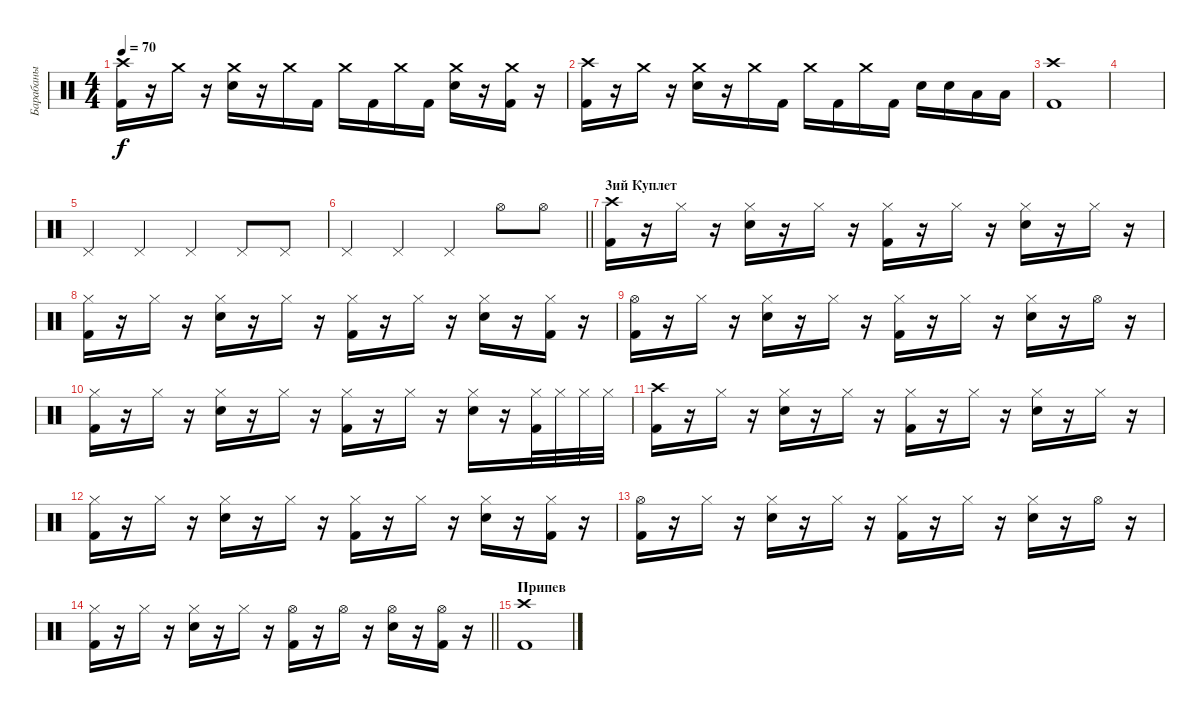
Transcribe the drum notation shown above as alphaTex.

\track ("Барабаны" "Барабаны") {instrument percussion}
\staff {score}
\articulation defaults
\ts (4 4)
\tempo 70
\clef neutral
\ks c
("Crash high (hit)" "Kick (hit) 2").16{dy f} r.16 "Crash medium (hit)".16 r.16 ("Crash medium (hit)" "Snare (hit) 2").16 r.16 "Crash medium (hit)".16 "Kick (hit) 2".16 "Crash medium (hit)".16 "Kick (hit) 2".16 "Crash medium (hit)".16 "Kick (hit) 2".16 ("Crash medium (hit)" "Snare (hit) 2").16 r.16 ("Crash medium (hit)" "Kick (hit) 2").16 r.16 |
("Crash high (hit)" "Kick (hit) 2").16 r.16 "Crash medium (hit)".16 r.16 ("Crash medium (hit)" "Snare (hit) 2").16 r.16 "Crash medium (hit)".16 "Kick (hit) 2".16 "Crash medium (hit)".16 "Kick (hit) 2".16 "Crash medium (hit)".16 "Kick (hit) 2".16 "Snare (hit) 2".16 "Snare (hit) 2".16 "Low Tom (hit)".16 "Low Tom (hit)".16 |
("Crash high (hit)" "Kick (hit) 2").1 |
|
"Pedal Hi-Hat (hit)".4 "Pedal Hi-Hat (hit)".4 "Pedal Hi-Hat (hit)".4 "Pedal Hi-Hat (hit)".8 "Pedal Hi-Hat (hit)".8 |
\barLineRight lightlight "Pedal Hi-Hat (hit)".4 "Pedal Hi-Hat (hit)".4 "Pedal Hi-Hat (hit)".4 "Hi-Hat (open)".8 "Hi-Hat (open)".8
|
\section ("" "3ий Куплет")
("Crash high (hit)" "Kick (hit) 2").16 r.16 "Hi-Hat (closed)".16 r.16 ("Hi-Hat (closed)" "Snare (hit) 2").16 r.16 "Hi-Hat (closed)".16 r.16 ("Hi-Hat (closed)" "Kick (hit) 2").16 r.16 "Hi-Hat (closed)".16 r.16 ("Hi-Hat (closed)" "Snare (hit) 2").16 r.16 "Hi-Hat (closed)".16 r.16 |
("Hi-Hat (closed)" "Kick (hit) 2").16 r.16 "Hi-Hat (closed)".16 r.16 ("Hi-Hat (closed)" "Snare (hit) 2").16 r.16 "Hi-Hat (closed)".16 r.16 ("Hi-Hat (closed)" "Kick (hit) 2").16 r.16 "Hi-Hat (closed)".16 r.16 ("Hi-Hat (closed)" "Snare (hit) 2").16 r.16 ("Hi-Hat (closed)" "Kick (hit) 2").16 r.16 |
("Hi-Hat (open)" "Kick (hit) 2").16 r.16 "Hi-Hat (closed)".16 r.16 ("Hi-Hat (closed)" "Snare (hit) 2").16 r.16 "Hi-Hat (closed)".16 r.16 ("Hi-Hat (closed)" "Kick (hit) 2").16 r.16 "Hi-Hat (closed)".16 r.16 ("Hi-Hat (closed)" "Snare (hit) 2").16 r.16 "Hi-Hat (open)".16 r.16 |
("Hi-Hat (closed)" "Kick (hit) 2").16 r.16 "Hi-Hat (closed)".16 r.16 ("Hi-Hat (closed)" "Snare (hit) 2").16 r.16 "Hi-Hat (closed)".16 r.16 ("Hi-Hat (closed)" "Kick (hit) 2").16 r.16 "Hi-Hat (closed)".16 r.16 ("Hi-Hat (closed)" "Snare (hit) 2").16 r.16 ("Hi-Hat (closed)" "Kick (hit) 2").32 "Hi-Hat (closed)".32 "Hi-Hat (closed)".32 "Hi-Hat (closed)".32 |
("Crash high (hit)" "Kick (hit) 2").16 r.16 "Hi-Hat (closed)".16 r.16 ("Hi-Hat (closed)" "Snare (hit) 2").16 r.16 "Hi-Hat (closed)".16 r.16 ("Hi-Hat (closed)" "Kick (hit) 2").16 r.16 "Hi-Hat (closed)".16 r.16 ("Hi-Hat (closed)" "Snare (hit) 2").16 r.16 "Hi-Hat (closed)".16 r.16 |
("Hi-Hat (closed)" "Kick (hit) 2").16 r.16 "Hi-Hat (closed)".16 r.16 ("Hi-Hat (closed)" "Snare (hit) 2").16 r.16 "Hi-Hat (closed)".16 r.16 ("Hi-Hat (closed)" "Kick (hit) 2").16 r.16 "Hi-Hat (closed)".16 r.16 ("Hi-Hat (closed)" "Snare (hit) 2").16 r.16 ("Hi-Hat (closed)" "Kick (hit) 2").16 r.16 |
("Hi-Hat (open)" "Kick (hit) 2").16 r.16 "Hi-Hat (closed)".16 r.16 ("Hi-Hat (closed)" "Snare (hit) 2").16 r.16 "Hi-Hat (closed)".16 r.16 ("Hi-Hat (closed)" "Kick (hit) 2").16 r.16 "Hi-Hat (closed)".16 r.16 ("Hi-Hat (closed)" "Snare (hit) 2").16 r.16 "Hi-Hat (open)".16 r.16 |
\barLineRight lightlight
("Hi-Hat (closed)" "Kick (hit) 2").16 r.16 "Hi-Hat (closed)".16 r.16 ("Hi-Hat (closed)" "Snare (hit) 2").16 r.16 "Hi-Hat (closed)".16 r.16 ("Hi-Hat (open)" "Kick (hit) 2").16 r.16 "Hi-Hat (open)".16 r.16 ("Hi-Hat (open)" "Snare (hit) 2").16 r.16 ("Hi-Hat (open)" "Kick (hit) 2").16 r.16 |
\section ("" "Припев")
("Crash high (hit)" "Kick (hit) 2").1
